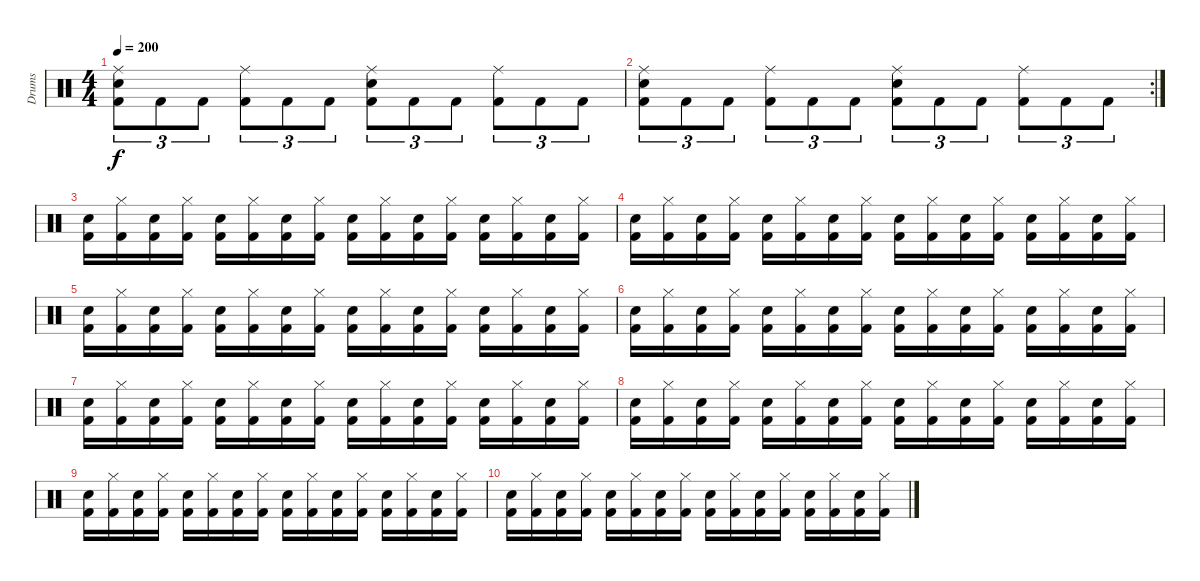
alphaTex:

\track ("Drums" "Drums") {instrument percussion}
\staff {score}
\articulation defaults
\ts (4 4)
\tempo 200
\clef neutral
\ks c
("Ride (middle)" "Snare (hit) 2" "Kick (hit) 2").8{tu (3 2) dy f} "Kick (hit) 2".8{tu (3 2)} "Kick (hit) 2".8{tu (3 2)} ("Ride (middle)" "Kick (hit) 2").8{tu (3 2)} "Kick (hit) 2".8{tu (3 2)} "Kick (hit) 2".8{tu (3 2)} ("Ride (middle)" "Snare (hit) 2" "Kick (hit) 2").8{tu (3 2)} "Kick (hit) 2".8{tu (3 2)} "Kick (hit) 2".8{tu (3 2)} ("Ride (middle)" "Kick (hit) 2").8{tu (3 2)} "Kick (hit) 2".8{tu (3 2)} "Kick (hit) 2".8{tu (3 2)} |
\rc 2
("Ride (middle)" "Snare (hit) 2" "Kick (hit) 2").8{tu (3 2)} "Kick (hit) 2".8{tu (3 2)} "Kick (hit) 2".8{tu (3 2)} ("Ride (middle)" "Kick (hit) 2").8{tu (3 2)} "Kick (hit) 2".8{tu (3 2)} "Kick (hit) 2".8{tu (3 2)} ("Ride (middle)" "Snare (hit) 2" "Kick (hit) 2").8{tu (3 2)} "Kick (hit) 2".8{tu (3 2)} "Kick (hit) 2".8{tu (3 2)} ("Ride (middle)" "Kick (hit) 2").8{tu (3 2)} "Kick (hit) 2".8{tu (3 2)} "Kick (hit) 2".8{tu (3 2)} |
("Snare (hit) 2" "Kick (hit) 2").16 ("Hi-Hat (closed)" "Kick (hit) 2").16 ("Snare (hit) 2" "Kick (hit) 2").16 ("Hi-Hat (closed)" "Kick (hit) 2").16 ("Snare (hit) 2" "Kick (hit) 2").16 ("Hi-Hat (closed)" "Kick (hit) 2").16 ("Snare (hit) 2" "Kick (hit) 2").16 ("Hi-Hat (closed)" "Kick (hit) 2").16 ("Snare (hit) 2" "Kick (hit) 2").16 ("Hi-Hat (closed)" "Kick (hit) 2").16 ("Snare (hit) 2" "Kick (hit) 2").16 ("Hi-Hat (closed)" "Kick (hit) 2").16 ("Snare (hit) 2" "Kick (hit) 2").16 ("Hi-Hat (closed)" "Kick (hit) 2").16 ("Snare (hit) 2" "Kick (hit) 2").16 ("Hi-Hat (closed)" "Kick (hit) 2").16 |
("Snare (hit) 2" "Kick (hit) 2").16{volume 12} ("Hi-Hat (closed)" "Kick (hit) 2").16 ("Snare (hit) 2" "Kick (hit) 2").16 ("Hi-Hat (closed)" "Kick (hit) 2").16 ("Snare (hit) 2" "Kick (hit) 2").16 ("Hi-Hat (closed)" "Kick (hit) 2").16 ("Snare (hit) 2" "Kick (hit) 2").16 ("Hi-Hat (closed)" "Kick (hit) 2").16 ("Snare (hit) 2" "Kick (hit) 2").16 ("Hi-Hat (closed)" "Kick (hit) 2").16 ("Snare (hit) 2" "Kick (hit) 2").16 ("Hi-Hat (closed)" "Kick (hit) 2").16 ("Snare (hit) 2" "Kick (hit) 2").16 ("Hi-Hat (closed)" "Kick (hit) 2").16 ("Snare (hit) 2" "Kick (hit) 2").16 ("Hi-Hat (closed)" "Kick (hit) 2").16 |
("Snare (hit) 2" "Kick (hit) 2").16 ("Hi-Hat (closed)" "Kick (hit) 2").16{volume 10} ("Snare (hit) 2" "Kick (hit) 2").16 ("Hi-Hat (closed)" "Kick (hit) 2").16 ("Snare (hit) 2" "Kick (hit) 2").16 ("Hi-Hat (closed)" "Kick (hit) 2").16 ("Snare (hit) 2" "Kick (hit) 2").16 ("Hi-Hat (closed)" "Kick (hit) 2").16 ("Snare (hit) 2" "Kick (hit) 2").16 ("Hi-Hat (closed)" "Kick (hit) 2").16 ("Snare (hit) 2" "Kick (hit) 2").16 ("Hi-Hat (closed)" "Kick (hit) 2").16 ("Snare (hit) 2" "Kick (hit) 2").16 ("Hi-Hat (closed)" "Kick (hit) 2").16 ("Snare (hit) 2" "Kick (hit) 2").16 ("Hi-Hat (closed)" "Kick (hit) 2").16 |
("Snare (hit) 2" "Kick (hit) 2").16 ("Hi-Hat (closed)" "Kick (hit) 2").16{volume 8} ("Snare (hit) 2" "Kick (hit) 2").16 ("Hi-Hat (closed)" "Kick (hit) 2").16 ("Snare (hit) 2" "Kick (hit) 2").16 ("Hi-Hat (closed)" "Kick (hit) 2").16 ("Snare (hit) 2" "Kick (hit) 2").16 ("Hi-Hat (closed)" "Kick (hit) 2").16 ("Snare (hit) 2" "Kick (hit) 2").16 ("Hi-Hat (closed)" "Kick (hit) 2").16 ("Snare (hit) 2" "Kick (hit) 2").16 ("Hi-Hat (closed)" "Kick (hit) 2").16 ("Snare (hit) 2" "Kick (hit) 2").16 ("Hi-Hat (closed)" "Kick (hit) 2").16 ("Snare (hit) 2" "Kick (hit) 2").16 ("Hi-Hat (closed)" "Kick (hit) 2").16 |
("Snare (hit) 2" "Kick (hit) 2").16 ("Hi-Hat (closed)" "Kick (hit) 2").16 ("Snare (hit) 2" "Kick (hit) 2").16{volume 6} ("Hi-Hat (closed)" "Kick (hit) 2").16 ("Snare (hit) 2" "Kick (hit) 2").16 ("Hi-Hat (closed)" "Kick (hit) 2").16 ("Snare (hit) 2" "Kick (hit) 2").16 ("Hi-Hat (closed)" "Kick (hit) 2").16 ("Snare (hit) 2" "Kick (hit) 2").16 ("Hi-Hat (closed)" "Kick (hit) 2").16 ("Snare (hit) 2" "Kick (hit) 2").16 ("Hi-Hat (closed)" "Kick (hit) 2").16 ("Snare (hit) 2" "Kick (hit) 2").16 ("Hi-Hat (closed)" "Kick (hit) 2").16 ("Snare (hit) 2" "Kick (hit) 2").16 ("Hi-Hat (closed)" "Kick (hit) 2").16 |
("Snare (hit) 2" "Kick (hit) 2").16{volume 4} ("Hi-Hat (closed)" "Kick (hit) 2").16 ("Snare (hit) 2" "Kick (hit) 2").16 ("Hi-Hat (closed)" "Kick (hit) 2").16 ("Snare (hit) 2" "Kick (hit) 2").16 ("Hi-Hat (closed)" "Kick (hit) 2").16 ("Snare (hit) 2" "Kick (hit) 2").16 ("Hi-Hat (closed)" "Kick (hit) 2").16 ("Snare (hit) 2" "Kick (hit) 2").16 ("Hi-Hat (closed)" "Kick (hit) 2").16 ("Snare (hit) 2" "Kick (hit) 2").16 ("Hi-Hat (closed)" "Kick (hit) 2").16 ("Snare (hit) 2" "Kick (hit) 2").16 ("Hi-Hat (closed)" "Kick (hit) 2").16 ("Snare (hit) 2" "Kick (hit) 2").16 ("Hi-Hat (closed)" "Kick (hit) 2").16 |
("Snare (hit) 2" "Kick (hit) 2").16 ("Hi-Hat (closed)" "Kick (hit) 2").16{volume 2} ("Snare (hit) 2" "Kick (hit) 2").16 ("Hi-Hat (closed)" "Kick (hit) 2").16 ("Snare (hit) 2" "Kick (hit) 2").16 ("Hi-Hat (closed)" "Kick (hit) 2").16 ("Snare (hit) 2" "Kick (hit) 2").16 ("Hi-Hat (closed)" "Kick (hit) 2").16 ("Snare (hit) 2" "Kick (hit) 2").16 ("Hi-Hat (closed)" "Kick (hit) 2").16 ("Snare (hit) 2" "Kick (hit) 2").16 ("Hi-Hat (closed)" "Kick (hit) 2").16 ("Snare (hit) 2" "Kick (hit) 2").16 ("Hi-Hat (closed)" "Kick (hit) 2").16 ("Snare (hit) 2" "Kick (hit) 2").16 ("Hi-Hat (closed)" "Kick (hit) 2").16 |
("Snare (hit) 2" "Kick (hit) 2").16 ("Hi-Hat (closed)" "Kick (hit) 2").16 ("Snare (hit) 2" "Kick (hit) 2").16 ("Hi-Hat (closed)" "Kick (hit) 2").16 ("Snare (hit) 2" "Kick (hit) 2").16 ("Hi-Hat (closed)" "Kick (hit) 2").16 ("Snare (hit) 2" "Kick (hit) 2").16{volume 0} ("Hi-Hat (closed)" "Kick (hit) 2").16 ("Snare (hit) 2" "Kick (hit) 2").16 ("Hi-Hat (closed)" "Kick (hit) 2").16 ("Snare (hit) 2" "Kick (hit) 2").16 ("Hi-Hat (closed)" "Kick (hit) 2").16 ("Snare (hit) 2" "Kick (hit) 2").16 ("Hi-Hat (closed)" "Kick (hit) 2").16 ("Snare (hit) 2" "Kick (hit) 2").16 ("Hi-Hat (closed)" "Kick (hit) 2").16
